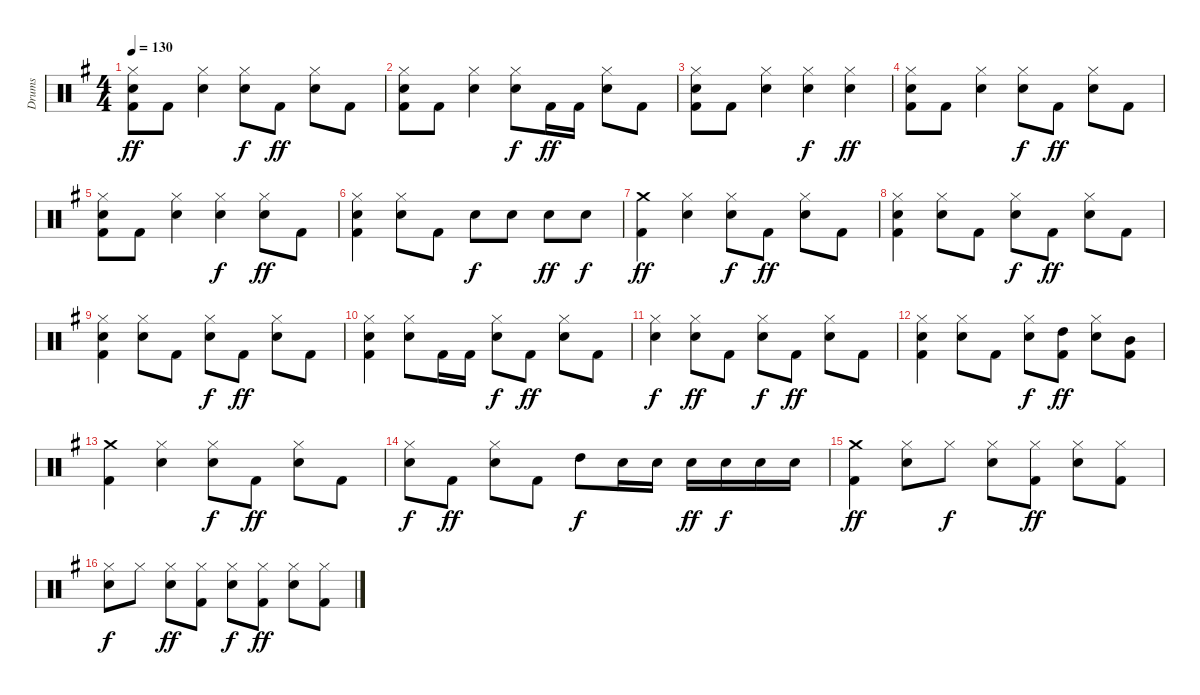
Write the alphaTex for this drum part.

\track ("Drums" "Drums") {instrument percussion}
\staff {score}
\articulation defaults
\ts (4 4)
\tempo 130
\clef neutral
\ks g
("Kick (hit) 2" "Snare (hit) 2" "Hi-Hat (closed)").8{dy ff} "Kick (hit) 2".8 ("Snare (hit) 2" "Hi-Hat (closed)").4 ("Snare (hit) 2" "Hi-Hat (closed)").8{dy f} "Kick (hit) 2".8{dy ff} ("Snare (hit) 2" "Hi-Hat (closed)").8 "Kick (hit) 2".8 |
("Kick (hit) 2" "Snare (hit) 2" "Hi-Hat (closed)").8 "Kick (hit) 2".8 ("Snare (hit) 2" "Hi-Hat (closed)").4 ("Snare (hit) 2" "Hi-Hat (closed)").8{dy f} "Kick (hit) 2".16{dy ff} "Kick (hit) 2".16 ("Snare (hit) 2" "Hi-Hat (closed)").8 "Kick (hit) 2".8 |
("Kick (hit) 2" "Snare (hit) 2" "Hi-Hat (closed)").8 "Kick (hit) 2".8 ("Snare (hit) 2" "Hi-Hat (closed)").4 ("Snare (hit) 2" "Hi-Hat (closed)").4{dy f} ("Snare (hit) 2" "Hi-Hat (closed)").4{dy ff} |
("Snare (hit) 2" "Hi-Hat (closed)" "Kick (hit) 2").8 "Kick (hit) 2".8 ("Snare (hit) 2" "Hi-Hat (closed)").4 ("Snare (hit) 2" "Hi-Hat (closed)").8{dy f} "Kick (hit) 2".8{dy ff} ("Snare (hit) 2" "Hi-Hat (closed)").8 "Kick (hit) 2".8 |
("Kick (hit) 2" "Snare (hit) 2" "Hi-Hat (closed)").8 "Kick (hit) 2".8 ("Snare (hit) 2" "Hi-Hat (closed)").4 ("Snare (hit) 2" "Hi-Hat (closed)").4{dy f} ("Snare (hit) 2" "Hi-Hat (closed)").8{dy ff} "Kick (hit) 2".8 |
("Kick (hit) 2" "Snare (hit) 2" "Hi-Hat (closed)").4 ("Snare (hit) 2" "Hi-Hat (closed)").8 "Kick (hit) 2".8 "Snare (hit) 2".8{dy f} "Snare (hit) 2".8 "Snare (hit) 2".8{dy ff} "Snare (hit) 2".8{dy f} |
("Kick (hit) 2" "Crash medium (hit)").4{dy ff} ("Snare (hit) 2" "Hi-Hat (closed)").4 ("Snare (hit) 2" "Hi-Hat (closed)").8{dy f} "Kick (hit) 2".8{dy ff} ("Snare (hit) 2" "Hi-Hat (closed)").8 "Kick (hit) 2".8 |
("Kick (hit) 2" "Snare (hit) 2" "Hi-Hat (closed)").4 ("Snare (hit) 2" "Hi-Hat (closed)").8 "Kick (hit) 2".8 ("Snare (hit) 2" "Hi-Hat (closed)").8{dy f} "Kick (hit) 2".8{dy ff} ("Snare (hit) 2" "Hi-Hat (closed)").8 "Kick (hit) 2".8 |
("Kick (hit) 2" "Snare (hit) 2" "Hi-Hat (closed)").4 ("Snare (hit) 2" "Hi-Hat (closed)").8 "Kick (hit) 2".8 ("Snare (hit) 2" "Hi-Hat (closed)").8{dy f} "Kick (hit) 2".8{dy ff} ("Snare (hit) 2" "Hi-Hat (closed)").8 "Kick (hit) 2".8 |
("Kick (hit) 2" "Snare (hit) 2" "Hi-Hat (closed)").4 ("Snare (hit) 2" "Hi-Hat (closed)").8 "Kick (hit) 2".16 "Kick (hit) 2".16 ("Snare (hit) 2" "Hi-Hat (closed)").8{dy f} "Kick (hit) 2".8{dy ff} ("Snare (hit) 2" "Hi-Hat (closed)").8 "Kick (hit) 2".8 |
("Snare (hit) 2" "Hi-Hat (closed)").4{dy f} ("Snare (hit) 2" "Hi-Hat (closed)").8{dy ff} "Kick (hit) 2".8 ("Snare (hit) 2" "Hi-Hat (closed)").8{dy f} "Kick (hit) 2".8{dy ff} ("Snare (hit) 2" "Hi-Hat (closed)").8 "Kick (hit) 2".8 |
("Kick (hit) 2" "Snare (hit) 2" "Hi-Hat (closed)").4 ("Snare (hit) 2" "Hi-Hat (closed)").8 "Kick (hit) 2".8 ("Snare (hit) 2" "Hi-Hat (closed)").8{dy f} ("Kick (hit) 2" "High Tom (hit)").8{dy ff} ("Snare (hit) 2" "Hi-Hat (closed)").8 ("Kick (hit) 2" "Mid Tom (hit)").8 |
("Kick (hit) 2" "Crash medium (hit)").4 ("Snare (hit) 2" "Hi-Hat (closed)").4 ("Snare (hit) 2" "Hi-Hat (closed)").8{dy f} "Kick (hit) 2".8{dy ff} ("Snare (hit) 2" "Hi-Hat (closed)").8 "Kick (hit) 2".8 |
("Snare (hit) 2" "Hi-Hat (closed)").8{dy f} "Kick (hit) 2".8{dy ff} ("Snare (hit) 2" "Hi-Hat (closed)").8 "Kick (hit) 2".8 "High Tom (hit)".8{dy f} "Snare (hit) 2".16 "Snare (hit) 2".16 "Snare (hit) 2".16{dy ff} "Snare (hit) 2".16{dy f} "Snare (hit) 2".16 "Snare (hit) 2".16 |
("Kick (hit) 2" "Crash medium (hit)").4{dy ff} ("Snare (hit) 2" "Hi-Hat (closed)").8 "Hi-Hat (closed)".8{dy f} ("Snare (hit) 2" "Hi-Hat (closed)").8 ("Kick (hit) 2" "Hi-Hat (closed)").8{dy ff} ("Snare (hit) 2" "Hi-Hat (closed)").8 ("Kick (hit) 2" "Hi-Hat (closed)").8 |
("Snare (hit) 2" "Hi-Hat (closed)").8{dy f} "Hi-Hat (closed)".8 ("Snare (hit) 2" "Hi-Hat (closed)").8{dy ff} ("Kick (hit) 2" "Hi-Hat (closed)").8 ("Snare (hit) 2" "Hi-Hat (closed)").8{dy f} ("Kick (hit) 2" "Hi-Hat (closed)").8{dy ff} ("Snare (hit) 2" "Hi-Hat (closed)").8 ("Kick (hit) 2" "Hi-Hat (closed)").8
